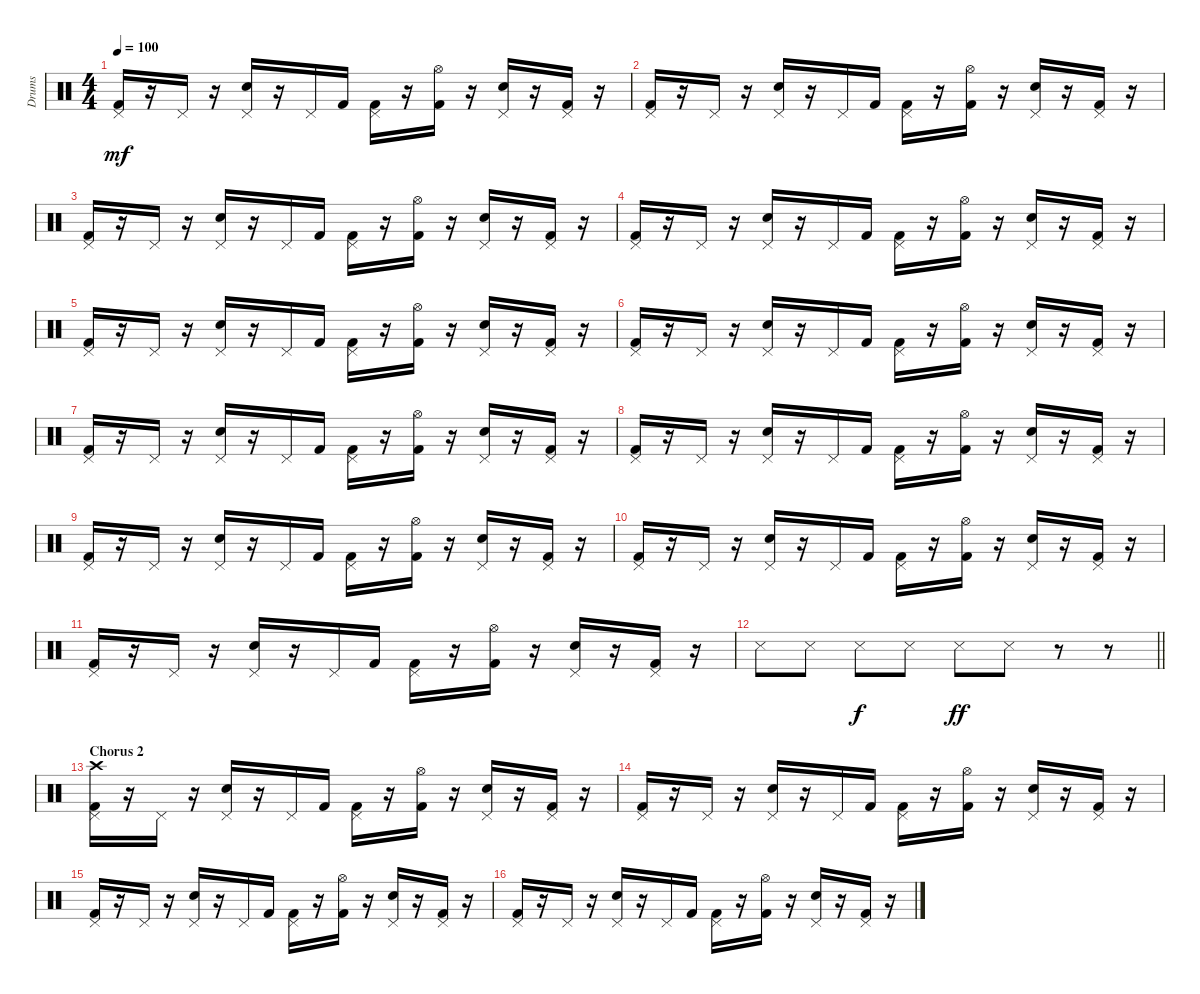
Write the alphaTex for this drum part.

\track ("Drums" "Drums") {instrument percussion}
\staff {score}
\articulation defaults
\ts (4 4)
\tempo 100
\clef neutral
\ks c
("Pedal Hi-Hat (hit)" "Kick (hit) 2").16{dy mf} r.16 "Pedal Hi-Hat (hit)".16 r.16 ("Pedal Hi-Hat (hit)" "Electric Snare (hit)").16 r.16 "Pedal Hi-Hat (hit)".16 "Kick (hit) 2".16 ("Pedal Hi-Hat (hit)" "Kick (hit) 2").16 r.16 ("Hi-Hat (open)" "Kick (hit) 2").16 r.16 ("Pedal Hi-Hat (hit)" "Electric Snare (hit)").16 r.16 ("Pedal Hi-Hat (hit)" "Kick (hit) 2").16 r.16 |
("Pedal Hi-Hat (hit)" "Kick (hit) 2").16 r.16 "Pedal Hi-Hat (hit)".16 r.16 ("Pedal Hi-Hat (hit)" "Electric Snare (hit)").16 r.16 "Pedal Hi-Hat (hit)".16 "Kick (hit) 2".16 ("Pedal Hi-Hat (hit)" "Kick (hit) 2").16 r.16 ("Hi-Hat (open)" "Kick (hit) 2").16 r.16 ("Pedal Hi-Hat (hit)" "Electric Snare (hit)").16 r.16 ("Pedal Hi-Hat (hit)" "Kick (hit) 2").16 r.16 |
("Pedal Hi-Hat (hit)" "Kick (hit) 2").16 r.16 "Pedal Hi-Hat (hit)".16 r.16 ("Pedal Hi-Hat (hit)" "Electric Snare (hit)").16 r.16 "Pedal Hi-Hat (hit)".16 "Kick (hit) 2".16 ("Pedal Hi-Hat (hit)" "Kick (hit) 2").16 r.16 ("Hi-Hat (open)" "Kick (hit) 2").16 r.16 ("Pedal Hi-Hat (hit)" "Electric Snare (hit)").16 r.16 ("Pedal Hi-Hat (hit)" "Kick (hit) 2").16 r.16 |
("Pedal Hi-Hat (hit)" "Kick (hit) 2").16 r.16 "Pedal Hi-Hat (hit)".16 r.16 ("Pedal Hi-Hat (hit)" "Electric Snare (hit)").16 r.16 "Pedal Hi-Hat (hit)".16 "Kick (hit) 2".16 ("Pedal Hi-Hat (hit)" "Kick (hit) 2").16 r.16 ("Hi-Hat (open)" "Kick (hit) 2").16 r.16 ("Pedal Hi-Hat (hit)" "Electric Snare (hit)").16 r.16 ("Pedal Hi-Hat (hit)" "Kick (hit) 2").16 r.16 |
("Pedal Hi-Hat (hit)" "Kick (hit) 2").16 r.16 "Pedal Hi-Hat (hit)".16 r.16 ("Pedal Hi-Hat (hit)" "Electric Snare (hit)").16 r.16 "Pedal Hi-Hat (hit)".16 "Kick (hit) 2".16 ("Pedal Hi-Hat (hit)" "Kick (hit) 2").16 r.16 ("Hi-Hat (open)" "Kick (hit) 2").16 r.16 ("Pedal Hi-Hat (hit)" "Electric Snare (hit)").16 r.16 ("Pedal Hi-Hat (hit)" "Kick (hit) 2").16 r.16 |
("Pedal Hi-Hat (hit)" "Kick (hit) 2").16 r.16 "Pedal Hi-Hat (hit)".16 r.16 ("Pedal Hi-Hat (hit)" "Electric Snare (hit)").16 r.16 "Pedal Hi-Hat (hit)".16 "Kick (hit) 2".16 ("Pedal Hi-Hat (hit)" "Kick (hit) 2").16 r.16 ("Hi-Hat (open)" "Kick (hit) 2").16 r.16 ("Pedal Hi-Hat (hit)" "Electric Snare (hit)").16 r.16 ("Pedal Hi-Hat (hit)" "Kick (hit) 2").16 r.16 |
("Pedal Hi-Hat (hit)" "Kick (hit) 2").16 r.16 "Pedal Hi-Hat (hit)".16 r.16 ("Pedal Hi-Hat (hit)" "Electric Snare (hit)").16 r.16 "Pedal Hi-Hat (hit)".16 "Kick (hit) 2".16 ("Pedal Hi-Hat (hit)" "Kick (hit) 2").16 r.16 ("Hi-Hat (open)" "Kick (hit) 2").16 r.16 ("Pedal Hi-Hat (hit)" "Electric Snare (hit)").16 r.16 ("Pedal Hi-Hat (hit)" "Kick (hit) 2").16 r.16 |
("Pedal Hi-Hat (hit)" "Kick (hit) 2").16 r.16 "Pedal Hi-Hat (hit)".16 r.16 ("Pedal Hi-Hat (hit)" "Electric Snare (hit)").16 r.16 "Pedal Hi-Hat (hit)".16 "Kick (hit) 2".16 ("Pedal Hi-Hat (hit)" "Kick (hit) 2").16 r.16 ("Hi-Hat (open)" "Kick (hit) 2").16 r.16 ("Pedal Hi-Hat (hit)" "Electric Snare (hit)").16 r.16 ("Pedal Hi-Hat (hit)" "Kick (hit) 2").16 r.16 |
("Pedal Hi-Hat (hit)" "Kick (hit) 2").16 r.16 "Pedal Hi-Hat (hit)".16 r.16 ("Pedal Hi-Hat (hit)" "Electric Snare (hit)").16 r.16 "Pedal Hi-Hat (hit)".16 "Kick (hit) 2".16 ("Pedal Hi-Hat (hit)" "Kick (hit) 2").16 r.16 ("Hi-Hat (open)" "Kick (hit) 2").16 r.16 ("Pedal Hi-Hat (hit)" "Electric Snare (hit)").16 r.16 ("Pedal Hi-Hat (hit)" "Kick (hit) 2").16 r.16 |
("Pedal Hi-Hat (hit)" "Kick (hit) 2").16 r.16 "Pedal Hi-Hat (hit)".16 r.16 ("Pedal Hi-Hat (hit)" "Electric Snare (hit)").16 r.16 "Pedal Hi-Hat (hit)".16 "Kick (hit) 2".16 ("Pedal Hi-Hat (hit)" "Kick (hit) 2").16 r.16 ("Hi-Hat (open)" "Kick (hit) 2").16 r.16 ("Pedal Hi-Hat (hit)" "Electric Snare (hit)").16 r.16 ("Pedal Hi-Hat (hit)" "Kick (hit) 2").16 r.16 |
("Pedal Hi-Hat (hit)" "Kick (hit) 2").16 r.16 "Pedal Hi-Hat (hit)".16 r.16 ("Pedal Hi-Hat (hit)" "Electric Snare (hit)").16 r.16 "Pedal Hi-Hat (hit)".16 "Kick (hit) 2".16 ("Pedal Hi-Hat (hit)" "Kick (hit) 2").16 r.16 ("Hi-Hat (open)" "Kick (hit) 2").16 r.16 ("Pedal Hi-Hat (hit)" "Electric Snare (hit)").16 r.16 ("Pedal Hi-Hat (hit)" "Kick (hit) 2").16 r.16 |
\barLineRight lightlight "Metronome (hit)".8 "Metronome (hit)".8 "Metronome (hit)".8{dy f} "Metronome (hit)".8 "Metronome (hit)".8{dy ff} "Metronome (hit)".8
r.8 r.8 |
\section ("" "Chorus 2")
("Pedal Hi-Hat (hit)" "Crash high (hit)" "Kick (hit) 2").16 r.16 "Pedal Hi-Hat (hit)".16 r.16 ("Pedal Hi-Hat (hit)" "Electric Snare (hit)").16 r.16 "Pedal Hi-Hat (hit)".16 "Kick (hit) 2".16 ("Pedal Hi-Hat (hit)" "Kick (hit) 2").16 r.16 ("Hi-Hat (open)" "Kick (hit) 2").16 r.16 ("Pedal Hi-Hat (hit)" "Electric Snare (hit)").16 r.16 ("Pedal Hi-Hat (hit)" "Kick (hit) 2").16 r.16 |
("Pedal Hi-Hat (hit)" "Kick (hit) 2").16 r.16 "Pedal Hi-Hat (hit)".16 r.16 ("Pedal Hi-Hat (hit)" "Electric Snare (hit)").16 r.16 "Pedal Hi-Hat (hit)".16 "Kick (hit) 2".16 ("Pedal Hi-Hat (hit)" "Kick (hit) 2").16 r.16 ("Hi-Hat (open)" "Kick (hit) 2").16 r.16 ("Pedal Hi-Hat (hit)" "Electric Snare (hit)").16 r.16 ("Pedal Hi-Hat (hit)" "Kick (hit) 2").16 r.16 |
("Pedal Hi-Hat (hit)" "Kick (hit) 2").16 r.16 "Pedal Hi-Hat (hit)".16 r.16 ("Pedal Hi-Hat (hit)" "Electric Snare (hit)").16 r.16 "Pedal Hi-Hat (hit)".16 "Kick (hit) 2".16 ("Pedal Hi-Hat (hit)" "Kick (hit) 2").16 r.16 ("Hi-Hat (open)" "Kick (hit) 2").16 r.16 ("Pedal Hi-Hat (hit)" "Electric Snare (hit)").16 r.16 ("Pedal Hi-Hat (hit)" "Kick (hit) 2").16 r.16 |
("Pedal Hi-Hat (hit)" "Kick (hit) 2").16 r.16 "Pedal Hi-Hat (hit)".16 r.16 ("Pedal Hi-Hat (hit)" "Electric Snare (hit)").16 r.16 "Pedal Hi-Hat (hit)".16 "Kick (hit) 2".16 ("Pedal Hi-Hat (hit)" "Kick (hit) 2").16 r.16 ("Hi-Hat (open)" "Kick (hit) 2").16 r.16 ("Pedal Hi-Hat (hit)" "Electric Snare (hit)").16 r.16 ("Pedal Hi-Hat (hit)" "Kick (hit) 2").16 r.16
